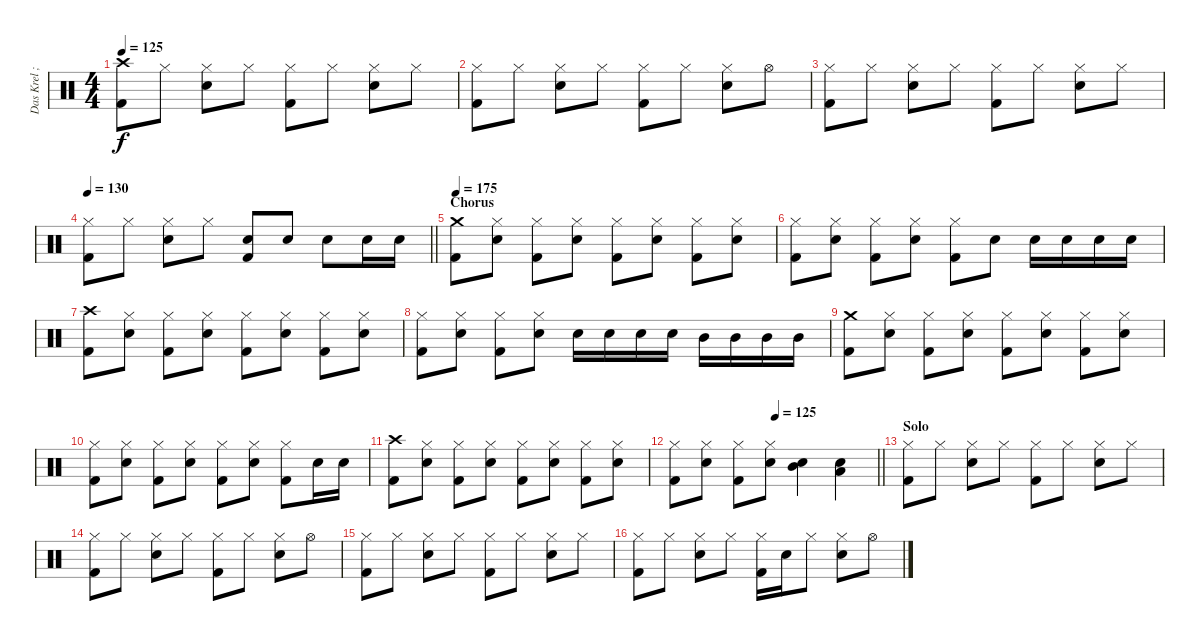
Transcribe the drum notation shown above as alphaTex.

\track ("Das Krel ;-)" "Das Krel ;") {instrument percussion}
\staff {score}
\articulation defaults
\ts (4 4)
\tempo 125
\clef neutral
\ks c
("Crash high (hit)" "Kick (hit) 2").8{dy f} "Hi-Hat (closed)".8 ("Hi-Hat (closed)" "Snare (hit) 2").8 "Hi-Hat (closed)".8 ("Hi-Hat (closed)" "Kick (hit) 2").8 "Hi-Hat (closed)".8 ("Hi-Hat (closed)" "Snare (hit) 2").8 "Hi-Hat (closed)".8 |
("Hi-Hat (closed)" "Kick (hit) 2").8 "Hi-Hat (closed)".8 ("Hi-Hat (closed)" "Snare (hit) 2").8 "Hi-Hat (closed)".8 ("Hi-Hat (closed)" "Kick (hit) 2").8 "Hi-Hat (closed)".8 ("Hi-Hat (closed)" "Snare (hit) 2").8 "Hi-Hat (open)".8 |
("Hi-Hat (closed)" "Kick (hit) 2").8 "Hi-Hat (closed)".8 ("Hi-Hat (closed)" "Snare (hit) 2").8 "Hi-Hat (closed)".8 ("Hi-Hat (closed)" "Kick (hit) 2").8 "Hi-Hat (closed)".8 ("Hi-Hat (closed)" "Snare (hit) 2").8 "Hi-Hat (closed)".8 |
\tempo 130
\barLineRight lightlight
("Hi-Hat (closed)" "Kick (hit) 2").8 "Hi-Hat (closed)".8 ("Hi-Hat (closed)" "Snare (hit) 2").8 "Hi-Hat (closed)".8 ("Snare (hit) 2" "Kick (hit) 2").8{bd 240} "Snare (hit) 2".8 "Snare (hit) 2".8 "Snare (hit) 2".16 "Snare (hit) 2".16 |
\section ("" "Chorus")
\tempo 175
("Crash medium (hit)" "Kick (hit) 2").8 ("Hi-Hat (closed)" "Snare (hit) 2").8 ("Hi-Hat (closed)" "Kick (hit) 2").8 ("Hi-Hat (closed)" "Snare (hit) 2").8 ("Hi-Hat (closed)" "Kick (hit) 2").8 ("Hi-Hat (closed)" "Snare (hit) 2").8 ("Hi-Hat (closed)" "Kick (hit) 2").8 ("Hi-Hat (closed)" "Snare (hit) 2").8 |
("Hi-Hat (closed)" "Kick (hit) 2").8 ("Hi-Hat (closed)" "Snare (hit) 2").8 ("Hi-Hat (closed)" "Kick (hit) 2").8 ("Hi-Hat (closed)" "Snare (hit) 2").8 ("Hi-Hat (closed)" "Kick (hit) 2").8 "Snare (hit) 2".8 "Snare (hit) 2".16 "Snare (hit) 2".16 "Snare (hit) 2".16 "Snare (hit) 2".16 |
("Crash high (hit)" "Kick (hit) 2").8 ("Hi-Hat (closed)" "Snare (hit) 2").8 ("Hi-Hat (closed)" "Kick (hit) 2").8 ("Hi-Hat (closed)" "Snare (hit) 2").8 ("Hi-Hat (closed)" "Kick (hit) 2").8 ("Hi-Hat (closed)" "Snare (hit) 2").8 ("Hi-Hat (closed)" "Kick (hit) 2").8 ("Hi-Hat (closed)" "Snare (hit) 2").8 |
("Hi-Hat (closed)" "Kick (hit) 2").8 ("Hi-Hat (closed)" "Snare (hit) 2").8 ("Hi-Hat (closed)" "Kick (hit) 2").8 ("Hi-Hat (closed)" "Snare (hit) 2").8 "Snare (hit) 2".16 "Snare (hit) 2".16 "Snare (hit) 2".16 "Snare (hit) 2".16 "Mid Tom (hit)".16 "Mid Tom (hit)".16 "Mid Tom (hit)".16 "Mid Tom (hit)".16 |
("Crash medium (hit)" "Kick (hit) 2").8 ("Hi-Hat (closed)" "Snare (hit) 2").8 ("Hi-Hat (closed)" "Kick (hit) 2").8 ("Hi-Hat (closed)" "Snare (hit) 2").8 ("Hi-Hat (closed)" "Kick (hit) 2").8 ("Hi-Hat (closed)" "Snare (hit) 2").8 ("Hi-Hat (closed)" "Kick (hit) 2").8 ("Hi-Hat (closed)" "Snare (hit) 2").8 |
("Hi-Hat (closed)" "Kick (hit) 2").8 ("Hi-Hat (closed)" "Snare (hit) 2").8 ("Hi-Hat (closed)" "Kick (hit) 2").8 ("Hi-Hat (closed)" "Snare (hit) 2").8 ("Hi-Hat (closed)" "Kick (hit) 2").8 ("Hi-Hat (closed)" "Snare (hit) 2").8 ("Hi-Hat (closed)" "Kick (hit) 2").8 "Snare (hit) 2".16 "Snare (hit) 2".16 |
("Crash high (hit)" "Kick (hit) 2").8 ("Hi-Hat (closed)" "Snare (hit) 2").8 ("Hi-Hat (closed)" "Kick (hit) 2").8 ("Hi-Hat (closed)" "Snare (hit) 2").8 ("Hi-Hat (closed)" "Kick (hit) 2").8 ("Hi-Hat (closed)" "Snare (hit) 2").8 ("Hi-Hat (closed)" "Kick (hit) 2").8 ("Hi-Hat (closed)" "Snare (hit) 2").8 |
\tempo (125 0.5)
\barLineRight lightlight
("Hi-Hat (closed)" "Kick (hit) 2").8 ("Hi-Hat (closed)" "Snare (hit) 2").8 ("Hi-Hat (closed)" "Kick (hit) 2").8 ("Hi-Hat (closed)" "Snare (hit) 2").8 ("Mid Tom (hit)" "Snare (hit) 2").4 ("Low Floor Tom (hit)" "Snare (hit) 2").4 |
\section ("" "Solo")
("Hi-Hat (closed)" "Kick (hit) 2").8 "Hi-Hat (closed)".8 ("Hi-Hat (closed)" "Snare (hit) 2").8 "Hi-Hat (closed)".8 ("Hi-Hat (closed)" "Kick (hit) 2").8 "Hi-Hat (closed)".8 ("Hi-Hat (closed)" "Snare (hit) 2").8 "Hi-Hat (closed)".8 |
("Hi-Hat (closed)" "Kick (hit) 2").8 "Hi-Hat (closed)".8 ("Hi-Hat (closed)" "Snare (hit) 2").8 "Hi-Hat (closed)".8 ("Hi-Hat (closed)" "Kick (hit) 2").8 "Hi-Hat (closed)".8 ("Hi-Hat (closed)" "Snare (hit) 2").8 "Hi-Hat (open)".8 |
("Hi-Hat (closed)" "Kick (hit) 2").8 "Hi-Hat (closed)".8 ("Hi-Hat (closed)" "Snare (hit) 2").8 "Hi-Hat (closed)".8 ("Hi-Hat (closed)" "Kick (hit) 2").8 "Hi-Hat (closed)".8 ("Hi-Hat (closed)" "Snare (hit) 2").8 "Hi-Hat (closed)".8 |
("Hi-Hat (closed)" "Kick (hit) 2").8 "Hi-Hat (closed)".8 ("Hi-Hat (closed)" "Snare (hit) 2").8 "Hi-Hat (closed)".8 ("Hi-Hat (closed)" "Kick (hit) 2").16 "Snare (hit) 2".16 "Hi-Hat (closed)".8 ("Hi-Hat (closed)" "Snare (hit) 2").8 "Hi-Hat (open)".8
